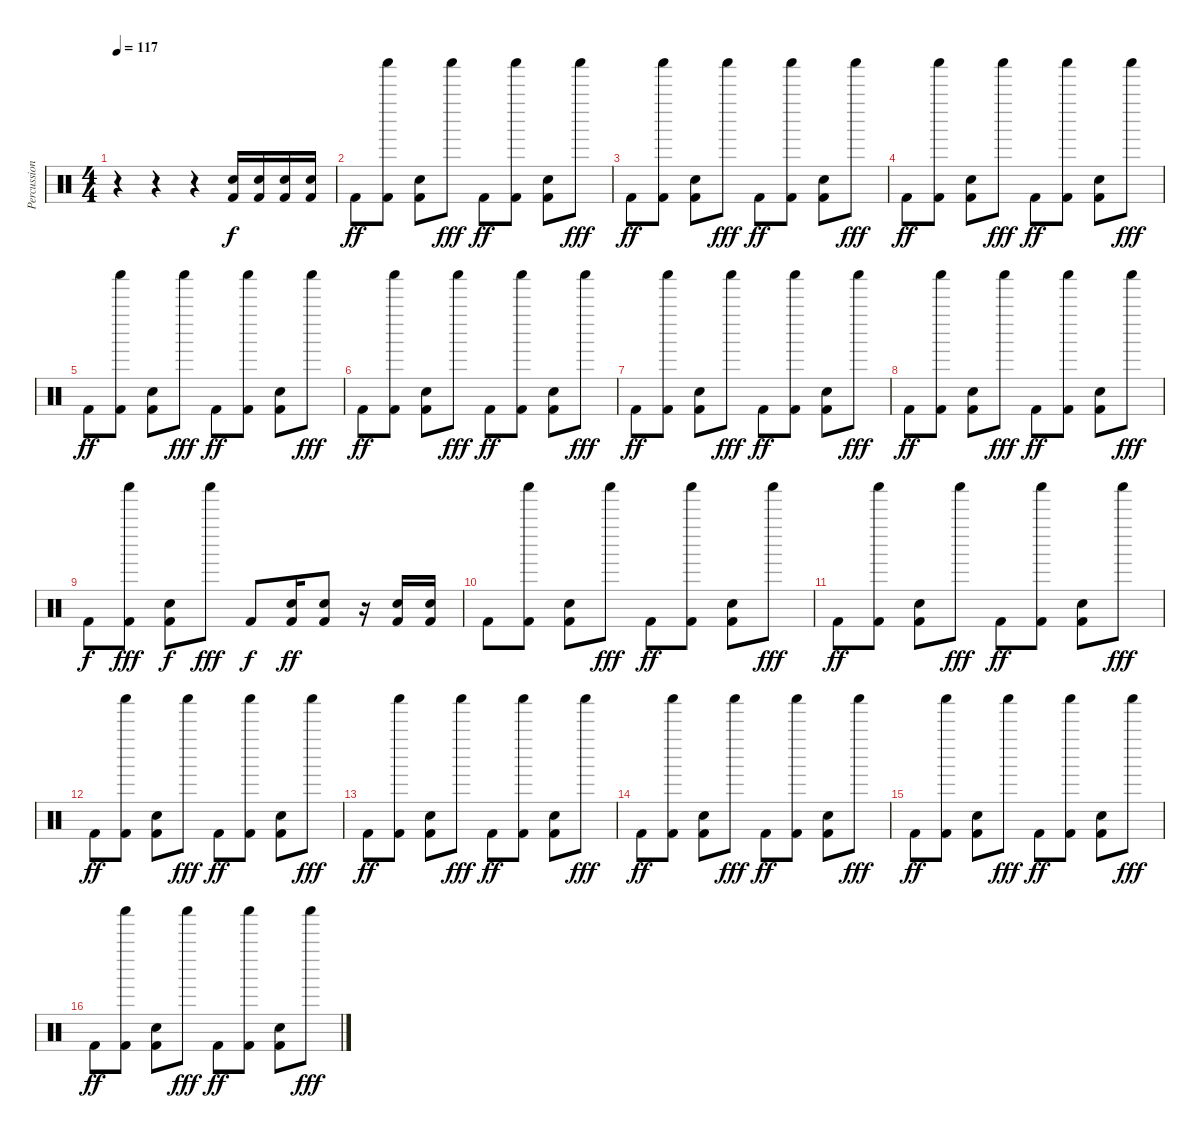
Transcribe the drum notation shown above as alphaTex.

\track ("Percussioni" "Percussion") {instrument percussion}
\staff {score}
\articulation defaults
\ts (4 4)
\tempo 117
\clef neutral
\ks c
r.4{dy f} r.4 r.4 ("Electric Snare (hit)" "Kick (hit) 2").16 ("Electric Snare (hit)" "Kick (hit) 2").16 ("Electric Snare (hit)" "Kick (hit) 2").16 ("Electric Snare (hit)" "Kick (hit) 2").16 |
"Kick (hit) 2".8{dy ff} ("Shaker (hit)" "Kick (hit) 2").8 ("Electric Snare (hit)" "Kick (hit) 2").8 "Shaker (hit)".8{dy fff} "Kick (hit) 2".8{dy ff} ("Shaker (hit)" "Kick (hit) 2").8 ("Electric Snare (hit)" "Kick (hit) 2").8 "Shaker (hit)".8{dy fff} |
"Kick (hit) 2".8{dy ff} ("Shaker (hit)" "Kick (hit) 2").8 ("Electric Snare (hit)" "Kick (hit) 2").8 "Shaker (hit)".8{dy fff} "Kick (hit) 2".8{dy ff} ("Shaker (hit)" "Kick (hit) 2").8 ("Electric Snare (hit)" "Kick (hit) 2").8 "Shaker (hit)".8{dy fff} |
"Kick (hit) 2".8{dy ff} ("Shaker (hit)" "Kick (hit) 2").8 ("Electric Snare (hit)" "Kick (hit) 2").8 "Shaker (hit)".8{dy fff} "Kick (hit) 2".8{dy ff} ("Shaker (hit)" "Kick (hit) 2").8 ("Electric Snare (hit)" "Kick (hit) 2").8 "Shaker (hit)".8{dy fff} |
"Kick (hit) 2".8{dy ff} ("Shaker (hit)" "Kick (hit) 2").8 ("Electric Snare (hit)" "Kick (hit) 2").8 "Shaker (hit)".8{dy fff} "Kick (hit) 2".8{dy ff} ("Shaker (hit)" "Kick (hit) 2").8 ("Electric Snare (hit)" "Kick (hit) 2").8 "Shaker (hit)".8{dy fff} |
"Kick (hit) 2".8{dy ff} ("Shaker (hit)" "Kick (hit) 2").8 ("Electric Snare (hit)" "Kick (hit) 2").8 "Shaker (hit)".8{dy fff} "Kick (hit) 2".8{dy ff} ("Shaker (hit)" "Kick (hit) 2").8 ("Electric Snare (hit)" "Kick (hit) 2").8 "Shaker (hit)".8{dy fff} |
"Kick (hit) 2".8{dy ff} ("Shaker (hit)" "Kick (hit) 2").8 ("Electric Snare (hit)" "Kick (hit) 2").8 "Shaker (hit)".8{dy fff} "Kick (hit) 2".8{dy ff} ("Shaker (hit)" "Kick (hit) 2").8 ("Electric Snare (hit)" "Kick (hit) 2").8 "Shaker (hit)".8{dy fff} |
"Kick (hit) 2".8{dy ff} ("Shaker (hit)" "Kick (hit) 2").8 ("Electric Snare (hit)" "Kick (hit) 2").8 "Shaker (hit)".8{dy fff} "Kick (hit) 2".8{dy ff} ("Shaker (hit)" "Kick (hit) 2").8 ("Electric Snare (hit)" "Kick (hit) 2").8 "Shaker (hit)".8{dy fff} |
"Kick (hit) 2".8{dy f} ("Shaker (hit)" "Kick (hit) 2").8{dy fff} ("Electric Snare (hit)" "Kick (hit) 2").8{dy f} "Shaker (hit)".8{dy fff} "Kick (hit) 2".8{dy f} ("Electric Snare (hit)" "Kick (hit) 2").16{dy ff} ("Electric Snare (hit)" "Kick (hit) 2").8 r.16 ("Electric Snare (hit)" "Kick (hit) 2").16 ("Electric Snare (hit)" "Kick (hit) 2").16 |
"Kick (hit) 2".8 ("Shaker (hit)" "Kick (hit) 2").8 ("Electric Snare (hit)" "Kick (hit) 2").8 "Shaker (hit)".8{dy fff} "Kick (hit) 2".8{dy ff} ("Shaker (hit)" "Kick (hit) 2").8 ("Electric Snare (hit)" "Kick (hit) 2").8 "Shaker (hit)".8{dy fff} |
"Kick (hit) 2".8{dy ff} ("Shaker (hit)" "Kick (hit) 2").8 ("Electric Snare (hit)" "Kick (hit) 2").8 "Shaker (hit)".8{dy fff} "Kick (hit) 2".8{dy ff} ("Shaker (hit)" "Kick (hit) 2").8 ("Electric Snare (hit)" "Kick (hit) 2").8 "Shaker (hit)".8{dy fff} |
"Kick (hit) 2".8{dy ff} ("Shaker (hit)" "Kick (hit) 2").8 ("Electric Snare (hit)" "Kick (hit) 2").8 "Shaker (hit)".8{dy fff} "Kick (hit) 2".8{dy ff} ("Shaker (hit)" "Kick (hit) 2").8 ("Electric Snare (hit)" "Kick (hit) 2").8 "Shaker (hit)".8{dy fff} |
"Kick (hit) 2".8{dy ff} ("Shaker (hit)" "Kick (hit) 2").8 ("Electric Snare (hit)" "Kick (hit) 2").8 "Shaker (hit)".8{dy fff} "Kick (hit) 2".8{dy ff} ("Shaker (hit)" "Kick (hit) 2").8 ("Electric Snare (hit)" "Kick (hit) 2").8 "Shaker (hit)".8{dy fff} |
"Kick (hit) 2".8{dy ff} ("Shaker (hit)" "Kick (hit) 2").8 ("Electric Snare (hit)" "Kick (hit) 2").8 "Shaker (hit)".8{dy fff} "Kick (hit) 2".8{dy ff} ("Shaker (hit)" "Kick (hit) 2").8 ("Electric Snare (hit)" "Kick (hit) 2").8 "Shaker (hit)".8{dy fff} |
"Kick (hit) 2".8{dy ff} ("Shaker (hit)" "Kick (hit) 2").8 ("Electric Snare (hit)" "Kick (hit) 2").8 "Shaker (hit)".8{dy fff} "Kick (hit) 2".8{dy ff} ("Shaker (hit)" "Kick (hit) 2").8 ("Electric Snare (hit)" "Kick (hit) 2").8 "Shaker (hit)".8{dy fff} |
"Kick (hit) 2".8{dy ff} ("Shaker (hit)" "Kick (hit) 2").8 ("Electric Snare (hit)" "Kick (hit) 2").8 "Shaker (hit)".8{dy fff} "Kick (hit) 2".8{dy ff} ("Shaker (hit)" "Kick (hit) 2").8 ("Electric Snare (hit)" "Kick (hit) 2").8 "Shaker (hit)".8{dy fff}
